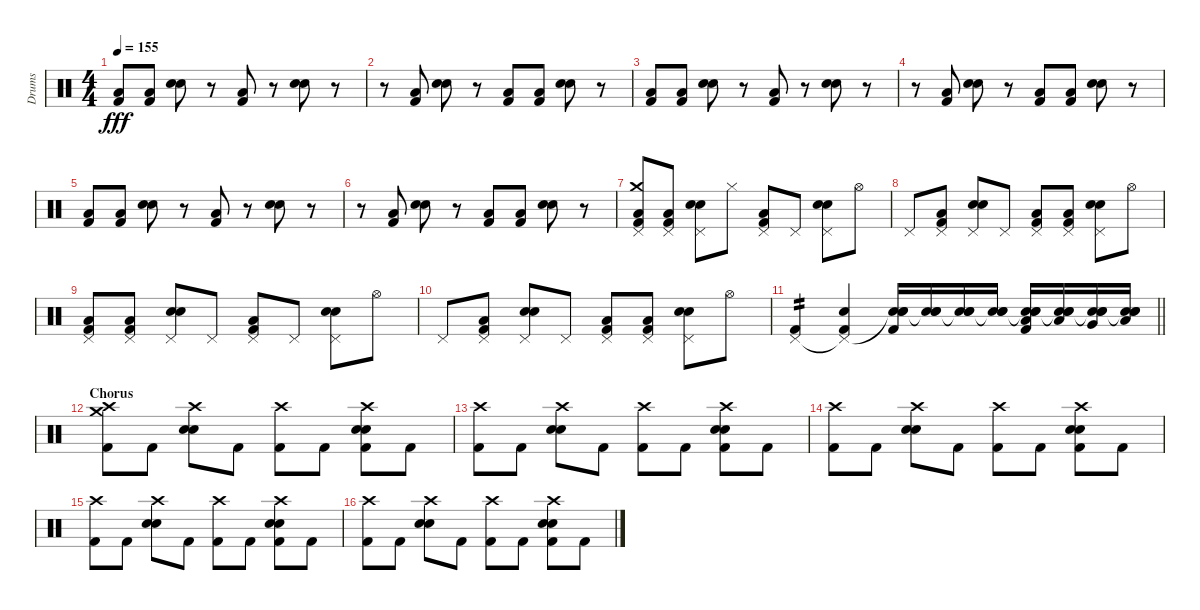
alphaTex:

\track ("Drums" "Drums") {instrument percussion}
\staff {score}
\articulation defaults
\ts (4 4)
\tempo 155
\clef neutral
\ks c
("Low Tom (hit)" "Kick (hit) 2").8{dy fff} ("Low Tom (hit)" "Kick (hit) 2").8 ("Electric Snare (hit)" "Snare (hit) 2").8 r.8 ("Low Tom (hit)" "Kick (hit) 2").8 r.8 ("Electric Snare (hit)" "Snare (hit) 2").8 r.8 |
r.8 ("Low Tom (hit)" "Kick (hit) 2").8 ("Electric Snare (hit)" "Snare (hit) 2").8 r.8 ("Low Tom (hit)" "Kick (hit) 2").8 ("Low Tom (hit)" "Kick (hit) 2").8 ("Electric Snare (hit)" "Snare (hit) 2").8 r.8 |
("Low Tom (hit)" "Kick (hit) 2").8 ("Low Tom (hit)" "Kick (hit) 2").8 ("Electric Snare (hit)" "Snare (hit) 2").8 r.8 ("Low Tom (hit)" "Kick (hit) 2").8 r.8 ("Electric Snare (hit)" "Snare (hit) 2").8 r.8 |
r.8 ("Low Tom (hit)" "Kick (hit) 2").8 ("Electric Snare (hit)" "Snare (hit) 2").8 r.8 ("Low Tom (hit)" "Kick (hit) 2").8 ("Low Tom (hit)" "Kick (hit) 2").8 ("Electric Snare (hit)" "Snare (hit) 2").8 r.8 |
("Low Tom (hit)" "Kick (hit) 2").8 ("Low Tom (hit)" "Kick (hit) 2").8 ("Electric Snare (hit)" "Snare (hit) 2").8 r.8 ("Low Tom (hit)" "Kick (hit) 2").8 r.8 ("Electric Snare (hit)" "Snare (hit) 2").8 r.8 |
r.8 ("Low Tom (hit)" "Kick (hit) 2").8 ("Electric Snare (hit)" "Snare (hit) 2").8 r.8 ("Low Tom (hit)" "Kick (hit) 2").8 ("Low Tom (hit)" "Kick (hit) 2").8 ("Electric Snare (hit)" "Snare (hit) 2").8 r.8 |
("Crash medium (hit)" "Pedal Hi-Hat (hit)" "Low Tom (hit)" "Kick (hit) 2").8 ("Pedal Hi-Hat (hit)" "Low Tom (hit)" "Kick (hit) 2").8 ("Pedal Hi-Hat (hit)" "Electric Snare (hit)" "Snare (hit) 2").8 "Hi-Hat (closed)".8 ("Pedal Hi-Hat (hit)" "Low Tom (hit)" "Kick (hit) 2").8 "Pedal Hi-Hat (hit)".8 ("Pedal Hi-Hat (hit)" "Electric Snare (hit)" "Snare (hit) 2").8 "Hi-Hat (open)".8 |
"Pedal Hi-Hat (hit)".8 ("Pedal Hi-Hat (hit)" "Low Tom (hit)" "Kick (hit) 2").8 ("Pedal Hi-Hat (hit)" "Electric Snare (hit)" "Snare (hit) 2").8 "Pedal Hi-Hat (hit)".8 ("Pedal Hi-Hat (hit)" "Low Tom (hit)" "Kick (hit) 2").8 ("Pedal Hi-Hat (hit)" "Low Tom (hit)" "Kick (hit) 2").8 ("Pedal Hi-Hat (hit)" "Electric Snare (hit)" "Snare (hit) 2").8 "Hi-Hat (open)".8 |
("Pedal Hi-Hat (hit)" "Low Tom (hit)" "Kick (hit) 2").8 ("Pedal Hi-Hat (hit)" "Low Tom (hit)" "Kick (hit) 2").8 ("Pedal Hi-Hat (hit)" "Electric Snare (hit)" "Snare (hit) 2").8 "Pedal Hi-Hat (hit)".8 ("Pedal Hi-Hat (hit)" "Low Tom (hit)" "Kick (hit) 2").8 "Pedal Hi-Hat (hit)".8 ("Pedal Hi-Hat (hit)" "Electric Snare (hit)" "Snare (hit) 2").8 "Hi-Hat (open)".8 |
"Pedal Hi-Hat (hit)".8 ("Pedal Hi-Hat (hit)" "Low Tom (hit)" "Kick (hit) 2").8 ("Pedal Hi-Hat (hit)" "Electric Snare (hit)" "Snare (hit) 2").8 "Pedal Hi-Hat (hit)".8 ("Pedal Hi-Hat (hit)" "Low Tom (hit)" "Kick (hit) 2").8 ("Pedal Hi-Hat (hit)" "Low Tom (hit)" "Kick (hit) 2").8 ("Pedal Hi-Hat (hit)" "Electric Snare (hit)" "Snare (hit) 2").8 "Hi-Hat (open)".8 |
\barLineRight lightlight
("Pedal Hi-Hat (hit)" "Kick (hit) 2").4{tp 2} ("Pedal Hi-Hat (hit)"{t} "Snare (hit) 2" "Kick (hit) 2").4 ("Snare (hit)"{t} "Snare (hit) 2" "Electric Snare (hit)" "Kick (hit) 2").16 ("Snare (hit)"{t} "Snare (hit) 2" "Electric Snare (hit)").16 ("Snare (hit)"{t} "Snare (hit) 2" "Electric Snare (hit)").16 ("Snare (hit)"{t} "Snare (hit) 2" "Electric Snare (hit)").16 ("Snare (hit)"{t} "Snare (hit) 2" "Electric Snare (hit)" "Low Tom (hit)" "Kick (hit) 2").16 ("Snare (hit)"{t} "Snare (hit) 2" "Electric Snare (hit)" "Low Tom (hit)").16 ("Snare (hit)"{t} "Snare (hit) 2" "Electric Snare (hit)" "Very Low Tom (hit)").16 ("Snare (hit)"{t} "Snare (hit) 2" "Electric Snare (hit)" "Low Floor Tom (hit)").16 |
\section ("" "Chorus")
("Crash medium (hit)" "Crash high (hit)" "Kick (hit) 2").8 "Kick (hit) 2".8 ("Crash high (hit)" "Electric Snare (hit)" "Snare (hit) 2").8 "Kick (hit) 2".8 ("Crash high (hit)" "Kick (hit) 2").8 "Kick (hit) 2".8 ("Crash high (hit)" "Electric Snare (hit)" "Snare (hit) 2" "Kick (hit) 2").8 "Kick (hit) 2".8 |
("Crash high (hit)" "Kick (hit) 2").8 "Kick (hit) 2".8 ("Crash high (hit)" "Electric Snare (hit)" "Snare (hit) 2").8 "Kick (hit) 2".8 ("Crash high (hit)" "Kick (hit) 2").8 "Kick (hit) 2".8 ("Crash high (hit)" "Electric Snare (hit)" "Snare (hit) 2" "Kick (hit) 2").8 "Kick (hit) 2".8 |
("Crash high (hit)" "Kick (hit) 2").8 "Kick (hit) 2".8 ("Crash high (hit)" "Electric Snare (hit)" "Snare (hit) 2").8 "Kick (hit) 2".8 ("Crash high (hit)" "Kick (hit) 2").8 "Kick (hit) 2".8 ("Crash high (hit)" "Electric Snare (hit)" "Snare (hit) 2" "Kick (hit) 2").8 "Kick (hit) 2".8 |
("Crash high (hit)" "Kick (hit) 2").8 "Kick (hit) 2".8 ("Crash high (hit)" "Electric Snare (hit)" "Snare (hit) 2").8 "Kick (hit) 2".8 ("Crash high (hit)" "Kick (hit) 2").8 "Kick (hit) 2".8 ("Crash high (hit)" "Electric Snare (hit)" "Snare (hit) 2" "Kick (hit) 2").8 "Kick (hit) 2".8 |
("Crash high (hit)" "Kick (hit) 2").8 "Kick (hit) 2".8 ("Crash high (hit)" "Electric Snare (hit)" "Snare (hit) 2").8 "Kick (hit) 2".8 ("Crash high (hit)" "Kick (hit) 2").8 "Kick (hit) 2".8 ("Crash high (hit)" "Electric Snare (hit)" "Snare (hit) 2" "Kick (hit) 2").8 "Kick (hit) 2".8
